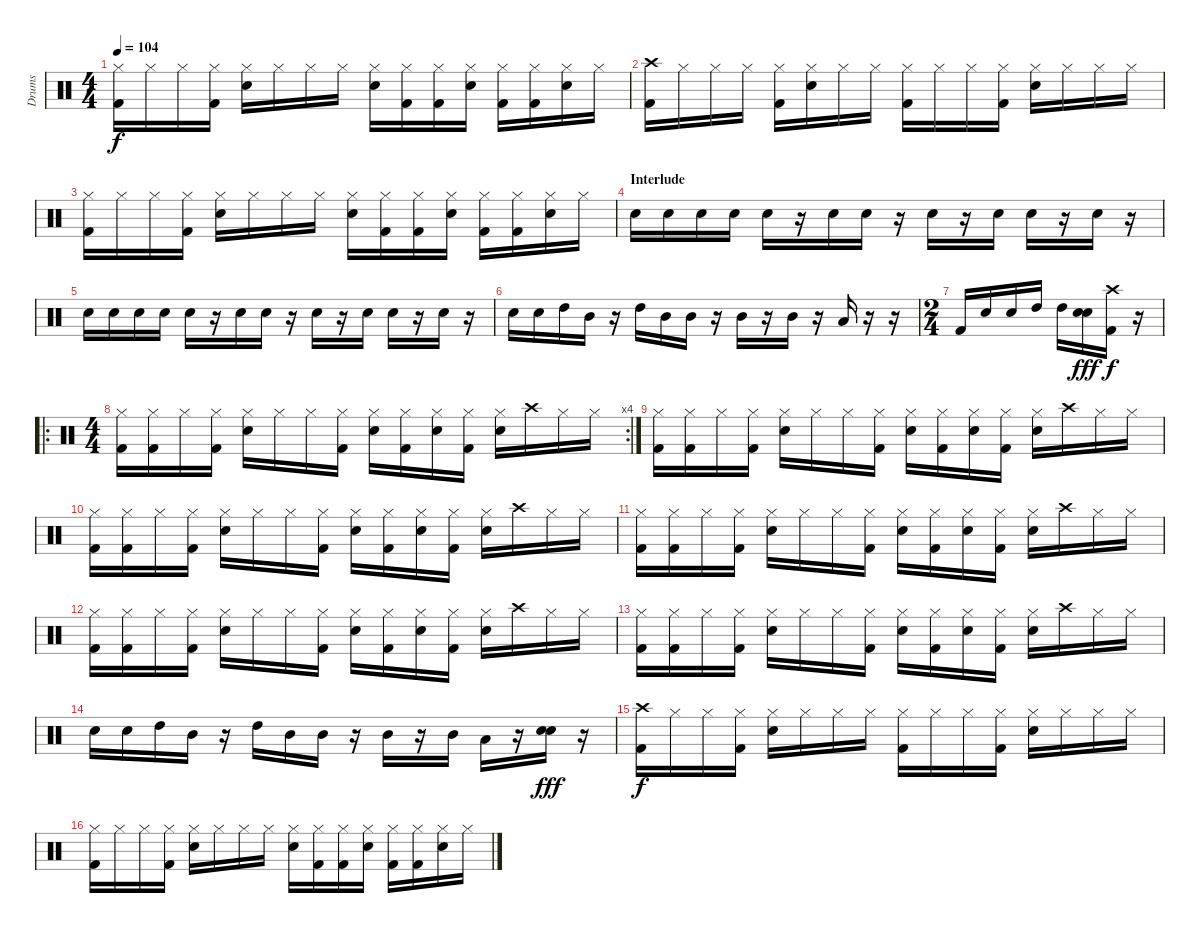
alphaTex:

\track ("Drums" "Drums") {instrument percussion}
\staff {score}
\articulation defaults
\ts (4 4)
\tempo 104
\clef neutral
\ks c
("Hi-Hat (closed)" "Kick (hit) 2").16{dy f} "Hi-Hat (closed)".16 "Hi-Hat (closed)".16 ("Hi-Hat (closed)" "Kick (hit) 2").16 ("Hi-Hat (closed)" "Snare (hit) 2").16 "Hi-Hat (closed)".16 "Hi-Hat (closed)".16 "Hi-Hat (closed)".16 ("Hi-Hat (closed)" "Snare (hit) 2").16 ("Hi-Hat (closed)" "Kick (hit) 2").16 ("Hi-Hat (closed)" "Kick (hit) 2").16 ("Hi-Hat (closed)" "Snare (hit) 2").16 ("Hi-Hat (closed)" "Kick (hit) 2").16 ("Hi-Hat (closed)" "Kick (hit) 2").16 ("Hi-Hat (closed)" "Snare (hit) 2").16 "Hi-Hat (closed)".16 |
("Crash high (hit)" "Kick (hit) 2").16 "Hi-Hat (closed)".16 "Hi-Hat (closed)".16 "Hi-Hat (closed)".16 ("Hi-Hat (closed)" "Kick (hit) 2").16 ("Hi-Hat (closed)" "Snare (hit) 2").16 "Hi-Hat (closed)".16 "Hi-Hat (closed)".16 ("Hi-Hat (closed)" "Kick (hit) 2").16 "Hi-Hat (closed)".16 "Hi-Hat (closed)".16 ("Hi-Hat (closed)" "Kick (hit) 2").16 ("Hi-Hat (closed)" "Snare (hit) 2").16 "Hi-Hat (closed)".16 "Hi-Hat (closed)".16 "Hi-Hat (closed)".16 |
("Hi-Hat (closed)" "Kick (hit) 2").16 "Hi-Hat (closed)".16 "Hi-Hat (closed)".16 ("Hi-Hat (closed)" "Kick (hit) 2").16 ("Hi-Hat (closed)" "Snare (hit) 2").16 "Hi-Hat (closed)".16 "Hi-Hat (closed)".16 "Hi-Hat (closed)".16 ("Hi-Hat (closed)" "Snare (hit) 2").16 ("Hi-Hat (closed)" "Kick (hit) 2").16 ("Hi-Hat (closed)" "Kick (hit) 2").16 ("Hi-Hat (closed)" "Snare (hit) 2").16 ("Hi-Hat (closed)" "Kick (hit) 2").16 ("Hi-Hat (closed)" "Kick (hit) 2").16 ("Hi-Hat (closed)" "Snare (hit) 2").16 "Hi-Hat (closed)".16 |
\section ("" "Interlude")
"Snare (hit) 2".16 "Snare (hit) 2".16 "Snare (hit) 2".16 "Snare (hit) 2".16 "Snare (hit) 2".16 r.16 "Snare (hit) 2".16 "Snare (hit) 2".16 r.16 "Snare (hit) 2".16 r.16 "Snare (hit) 2".16 "Snare (hit) 2".16 r.16 "Snare (hit) 2".16 r.16 |
"Snare (hit) 2".16 "Snare (hit) 2".16 "Snare (hit) 2".16 "Snare (hit) 2".16 "Snare (hit) 2".16 r.16 "Snare (hit) 2".16 "Snare (hit) 2".16 r.16 "Snare (hit) 2".16 r.16 "Snare (hit) 2".16 "Snare (hit) 2".16 r.16 "Snare (hit) 2".16 r.16 |
"Snare (hit) 2".16 "Snare (hit) 2".16 "High Tom (hit)".16 "Mid Tom (hit)".16 r.16 "High Tom (hit)".16 "Mid Tom (hit)".16 "Mid Tom (hit)".16 r.16 "Mid Tom (hit)".16 r.16 "Mid Tom (hit)".16 r.16 "Low Tom (hit)".16 r.16 r.16 |
\ts (2 4)
"Kick (hit) 2".16 "Snare (hit) 2".16 "Snare (hit) 2".16 "High Tom (hit)".16 "High Tom (hit)".16 ("Snare (hit) 2" "Snare (hit) 2").16{dy fff} ("Crash high (hit)" "Kick (hit) 2").16{dy f} r.16 |
\ro
\rc 4
\ts (4 4)
("Hi-Hat (closed)" "Kick (hit) 2").16 ("Hi-Hat (closed)" "Kick (hit) 2").16 "Hi-Hat (closed)".16 ("Hi-Hat (closed)" "Kick (hit) 2").16 ("Hi-Hat (closed)" "Snare (hit) 2").16 "Hi-Hat (closed)".16 "Hi-Hat (closed)".16 ("Hi-Hat (closed)" "Kick (hit) 2").16 ("Hi-Hat (closed)" "Snare (hit) 2").16 ("Hi-Hat (closed)" "Kick (hit) 2").16 ("Hi-Hat (closed)" "Snare (hit) 2").16 ("Hi-Hat (closed)" "Kick (hit) 2").16 ("Hi-Hat (closed)" "Snare (hit) 2").16 "Crash high (hit)".16 "Hi-Hat (closed)".16 "Hi-Hat (closed)".16 |
("Hi-Hat (closed)" "Kick (hit) 2").16 ("Hi-Hat (closed)" "Kick (hit) 2").16 "Hi-Hat (closed)".16 ("Hi-Hat (closed)" "Kick (hit) 2").16 ("Hi-Hat (closed)" "Snare (hit) 2").16 "Hi-Hat (closed)".16 "Hi-Hat (closed)".16 ("Hi-Hat (closed)" "Kick (hit) 2").16 ("Hi-Hat (closed)" "Snare (hit) 2").16 ("Hi-Hat (closed)" "Kick (hit) 2").16 ("Hi-Hat (closed)" "Snare (hit) 2").16 ("Hi-Hat (closed)" "Kick (hit) 2").16 ("Hi-Hat (closed)" "Snare (hit) 2").16 "Crash high (hit)".16 "Hi-Hat (closed)".16 "Hi-Hat (closed)".16 |
("Hi-Hat (closed)" "Kick (hit) 2").16 ("Hi-Hat (closed)" "Kick (hit) 2").16 "Hi-Hat (closed)".16 ("Hi-Hat (closed)" "Kick (hit) 2").16 ("Hi-Hat (closed)" "Snare (hit) 2").16 "Hi-Hat (closed)".16 "Hi-Hat (closed)".16 ("Hi-Hat (closed)" "Kick (hit) 2").16 ("Hi-Hat (closed)" "Snare (hit) 2").16 ("Hi-Hat (closed)" "Kick (hit) 2").16 ("Hi-Hat (closed)" "Snare (hit) 2").16 ("Hi-Hat (closed)" "Kick (hit) 2").16 ("Hi-Hat (closed)" "Snare (hit) 2").16 "Crash high (hit)".16 "Hi-Hat (closed)".16 "Hi-Hat (closed)".16 |
("Hi-Hat (closed)" "Kick (hit) 2").16 ("Hi-Hat (closed)" "Kick (hit) 2").16 "Hi-Hat (closed)".16 ("Hi-Hat (closed)" "Kick (hit) 2").16 ("Hi-Hat (closed)" "Snare (hit) 2").16 "Hi-Hat (closed)".16 "Hi-Hat (closed)".16 ("Hi-Hat (closed)" "Kick (hit) 2").16 ("Hi-Hat (closed)" "Snare (hit) 2").16 ("Hi-Hat (closed)" "Kick (hit) 2").16 ("Hi-Hat (closed)" "Snare (hit) 2").16 ("Hi-Hat (closed)" "Kick (hit) 2").16 ("Hi-Hat (closed)" "Snare (hit) 2").16 "Crash high (hit)".16 "Hi-Hat (closed)".16 "Hi-Hat (closed)".16 |
("Hi-Hat (closed)" "Kick (hit) 2").16 ("Hi-Hat (closed)" "Kick (hit) 2").16 "Hi-Hat (closed)".16 ("Hi-Hat (closed)" "Kick (hit) 2").16 ("Hi-Hat (closed)" "Snare (hit) 2").16 "Hi-Hat (closed)".16 "Hi-Hat (closed)".16 ("Hi-Hat (closed)" "Kick (hit) 2").16 ("Hi-Hat (closed)" "Snare (hit) 2").16 ("Hi-Hat (closed)" "Kick (hit) 2").16 ("Hi-Hat (closed)" "Snare (hit) 2").16 ("Hi-Hat (closed)" "Kick (hit) 2").16 ("Hi-Hat (closed)" "Snare (hit) 2").16 "Crash high (hit)".16 "Hi-Hat (closed)".16 "Hi-Hat (closed)".16 |
("Hi-Hat (closed)" "Kick (hit) 2").16 ("Hi-Hat (closed)" "Kick (hit) 2").16 "Hi-Hat (closed)".16 ("Hi-Hat (closed)" "Kick (hit) 2").16 ("Hi-Hat (closed)" "Snare (hit) 2").16 "Hi-Hat (closed)".16 "Hi-Hat (closed)".16 ("Hi-Hat (closed)" "Kick (hit) 2").16 ("Hi-Hat (closed)" "Snare (hit) 2").16 ("Hi-Hat (closed)" "Kick (hit) 2").16 ("Hi-Hat (closed)" "Snare (hit) 2").16 ("Hi-Hat (closed)" "Kick (hit) 2").16 ("Hi-Hat (closed)" "Snare (hit) 2").16 "Crash high (hit)".16 "Hi-Hat (closed)".16 "Hi-Hat (closed)".16 |
"Snare (hit) 2".16 "Snare (hit) 2".16 "High Tom (hit)".16 "Mid Tom (hit)".16 r.16 "High Tom (hit)".16 "Mid Tom (hit)".16 "Mid Tom (hit)".16 r.16 "Mid Tom (hit)".16 r.16 "Mid Tom (hit)".16 "Low Tom (hit)".16 r.16 ("Snare (hit) 2" "Snare (hit) 2").16{dy fff} r.16 |
("Crash high (hit)" "Kick (hit) 2").16{dy f} "Hi-Hat (closed)".16 "Hi-Hat (closed)".16 ("Hi-Hat (closed)" "Kick (hit) 2").16 ("Hi-Hat (closed)" "Snare (hit) 2").16 "Hi-Hat (closed)".16 "Hi-Hat (closed)".16 "Hi-Hat (closed)".16 ("Hi-Hat (closed)" "Kick (hit) 2").16 "Hi-Hat (closed)".16 "Hi-Hat (closed)".16 ("Hi-Hat (closed)" "Kick (hit) 2").16 ("Hi-Hat (closed)" "Snare (hit) 2").16 "Hi-Hat (closed)".16 "Hi-Hat (closed)".16 "Hi-Hat (closed)".16 |
("Hi-Hat (closed)" "Kick (hit) 2").16 "Hi-Hat (closed)".16 "Hi-Hat (closed)".16 ("Hi-Hat (closed)" "Kick (hit) 2").16 ("Hi-Hat (closed)" "Snare (hit) 2").16 "Hi-Hat (closed)".16 "Hi-Hat (closed)".16 "Hi-Hat (closed)".16 ("Hi-Hat (closed)" "Snare (hit) 2").16 ("Hi-Hat (closed)" "Kick (hit) 2").16 ("Hi-Hat (closed)" "Kick (hit) 2").16 ("Hi-Hat (closed)" "Snare (hit) 2").16 ("Hi-Hat (closed)" "Kick (hit) 2").16 ("Hi-Hat (closed)" "Kick (hit) 2").16 ("Hi-Hat (closed)" "Snare (hit) 2").16 "Hi-Hat (closed)".16
